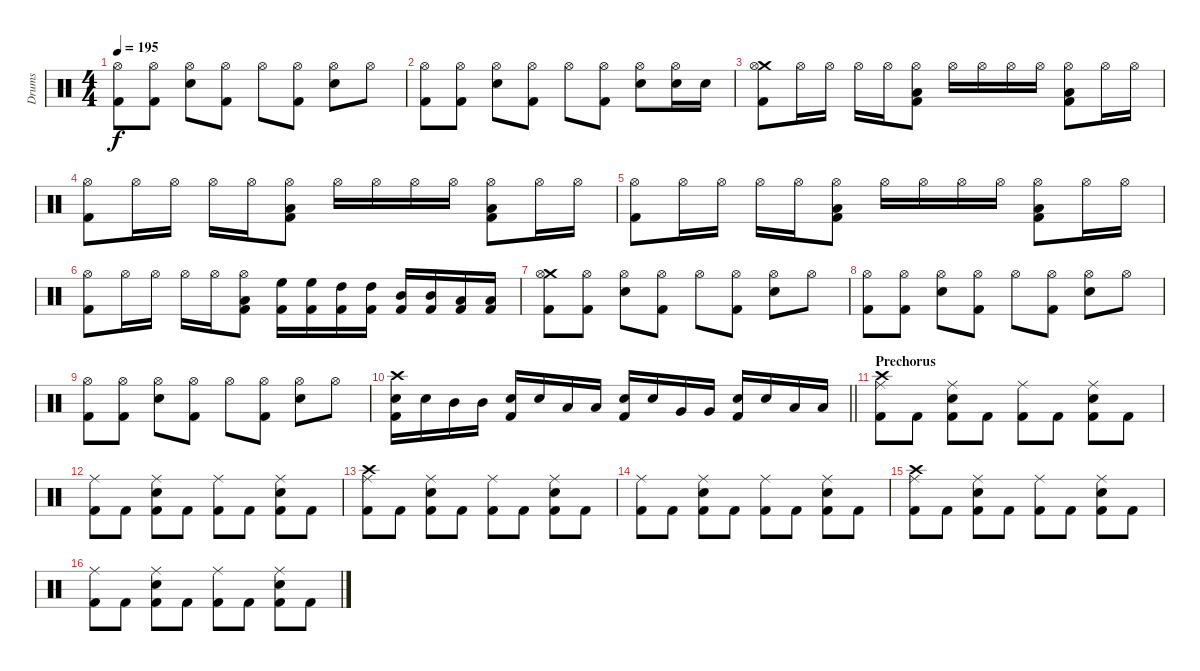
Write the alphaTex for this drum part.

\track ("Drums" "Drums") {instrument percussion}
\staff {score}
\articulation defaults
\ts (4 4)
\tempo 195
\clef neutral
\ks c
("Hi-Hat (open)" "Kick (hit) 2").8{dy f} ("Hi-Hat (open)" "Kick (hit) 2").8 ("Hi-Hat (open)" "Snare (hit) 2").8 ("Hi-Hat (open)" "Kick (hit) 2").8 "Hi-Hat (open)".8 ("Hi-Hat (open)" "Kick (hit) 2").8 ("Hi-Hat (open)" "Snare (hit) 2").8 "Hi-Hat (open)".8 |
("Hi-Hat (open)" "Kick (hit) 2").8 ("Hi-Hat (open)" "Kick (hit) 2").8 ("Hi-Hat (open)" "Snare (hit) 2").8 ("Hi-Hat (open)" "Kick (hit) 2").8 "Hi-Hat (open)".8 ("Hi-Hat (open)" "Kick (hit) 2").8 ("Hi-Hat (open)" "Snare (hit) 2").8 ("Hi-Hat (open)" "Snare (hit) 2").16 "Snare (hit) 2".16 |
("Crash medium (hit)" "Hi-Hat (open)" "Kick (hit) 2").8 "Hi-Hat (open)".16 "Hi-Hat (open)".16 "Hi-Hat (open)".16 "Hi-Hat (open)".16 ("Hi-Hat (open)" "Low Floor Tom (hit)" "Kick (hit) 2").8 "Hi-Hat (open)".16 "Hi-Hat (open)".16 "Hi-Hat (open)".16 "Hi-Hat (open)".16 ("Hi-Hat (open)" "Low Floor Tom (hit)" "Kick (hit) 2").8 "Hi-Hat (open)".16 "Hi-Hat (open)".16 |
("Hi-Hat (open)" "Kick (hit) 2").8 "Hi-Hat (open)".16 "Hi-Hat (open)".16 "Hi-Hat (open)".16 "Hi-Hat (open)".16 ("Hi-Hat (open)" "Low Floor Tom (hit)" "Kick (hit) 2").8 "Hi-Hat (open)".16 "Hi-Hat (open)".16 "Hi-Hat (open)".16 "Hi-Hat (open)".16 ("Hi-Hat (open)" "Low Floor Tom (hit)" "Kick (hit) 2").8 "Hi-Hat (open)".16 "Hi-Hat (open)".16 |
("Hi-Hat (open)" "Kick (hit) 2").8 "Hi-Hat (open)".16 "Hi-Hat (open)".16 "Hi-Hat (open)".16 "Hi-Hat (open)".16 ("Hi-Hat (open)" "Low Floor Tom (hit)" "Kick (hit) 2").8 "Hi-Hat (open)".16 "Hi-Hat (open)".16 "Hi-Hat (open)".16 "Hi-Hat (open)".16 ("Hi-Hat (open)" "Low Floor Tom (hit)" "Kick (hit) 2").8 "Hi-Hat (open)".16 "Hi-Hat (open)".16 |
("Hi-Hat (open)" "Kick (hit) 2").8 "Hi-Hat (open)".16 "Hi-Hat (open)".16 "Hi-Hat (open)".16 "Hi-Hat (open)".16 ("Hi-Hat (open)" "Low Floor Tom (hit)" "Kick (hit) 2").8 ("High Floor Tom (hit)" "Kick (hit) 2").16 ("High Floor Tom (hit)" "Kick (hit) 2").16 ("High Tom (hit)" "Kick (hit) 2").16 ("High Tom (hit)" "Kick (hit) 2").16 ("Mid Tom (hit)" "Kick (hit) 2").16 ("Mid Tom (hit)" "Kick (hit) 2").16 ("Low Tom (hit)" "Kick (hit) 2").16 ("Low Tom (hit)" "Kick (hit) 2").16 |
("Crash medium (hit)" "Hi-Hat (open)" "Kick (hit) 2").8 ("Hi-Hat (open)" "Kick (hit) 2").8 ("Hi-Hat (open)" "Snare (hit) 2").8 ("Hi-Hat (open)" "Kick (hit) 2").8 "Hi-Hat (open)".8 ("Hi-Hat (open)" "Kick (hit) 2").8 ("Hi-Hat (open)" "Snare (hit) 2").8 "Hi-Hat (open)".8 |
("Hi-Hat (open)" "Kick (hit) 2").8 ("Hi-Hat (open)" "Kick (hit) 2").8 ("Hi-Hat (open)" "Snare (hit) 2").8 ("Hi-Hat (open)" "Kick (hit) 2").8 "Hi-Hat (open)".8 ("Hi-Hat (open)" "Kick (hit) 2").8 ("Hi-Hat (open)" "Snare (hit) 2").8 "Hi-Hat (open)".8 |
("Hi-Hat (open)" "Kick (hit) 2").8 ("Hi-Hat (open)" "Kick (hit) 2").8 ("Hi-Hat (open)" "Snare (hit) 2").8 ("Hi-Hat (open)" "Kick (hit) 2").8 "Hi-Hat (open)".8 ("Hi-Hat (open)" "Kick (hit) 2").8 ("Hi-Hat (open)" "Snare (hit) 2").8 "Hi-Hat (open)".8 |
\barLineRight lightlight
("Crash high (hit)" "Snare (hit) 2" "Kick (hit) 2").16 "Snare (hit) 2".16 "Mid Tom (hit)".16 "Mid Tom (hit)".16 ("Snare (hit) 2" "Kick (hit) 2").16 "Snare (hit) 2".16 "Low Tom (hit)".16 "Low Tom (hit)".16 ("Snare (hit) 2" "Kick (hit) 2").16 "Snare (hit) 2".16 "Very Low Tom (hit)".16 "Very Low Tom (hit)".16 ("Snare (hit) 2" "Kick (hit) 2").16 "Snare (hit) 2".16 "Low Floor Tom (hit)".16 "Low Floor Tom (hit)".16 |
\section ("" "Prechorus")
("Crash high (hit)" "Ride (middle)" "Kick (hit) 2").8 "Kick (hit) 2".8 ("Ride (middle)" "Snare (hit) 2" "Kick (hit) 2").8 "Kick (hit) 2".8 ("Ride (middle)" "Kick (hit) 2").8 "Kick (hit) 2".8 ("Ride (middle)" "Snare (hit) 2" "Kick (hit) 2").8 "Kick (hit) 2".8 |
("Ride (middle)" "Kick (hit) 2").8 "Kick (hit) 2".8 ("Ride (middle)" "Snare (hit) 2" "Kick (hit) 2").8 "Kick (hit) 2".8 ("Ride (middle)" "Kick (hit) 2").8 "Kick (hit) 2".8 ("Ride (middle)" "Snare (hit) 2" "Kick (hit) 2").8 "Kick (hit) 2".8 |
("Crash high (hit)" "Ride (middle)" "Kick (hit) 2").8 "Kick (hit) 2".8 ("Ride (middle)" "Snare (hit) 2" "Kick (hit) 2").8 "Kick (hit) 2".8 ("Ride (middle)" "Kick (hit) 2").8 "Kick (hit) 2".8 ("Ride (middle)" "Snare (hit) 2" "Kick (hit) 2").8 "Kick (hit) 2".8 |
("Ride (middle)" "Kick (hit) 2").8 "Kick (hit) 2".8 ("Ride (middle)" "Snare (hit) 2" "Kick (hit) 2").8 "Kick (hit) 2".8 ("Ride (middle)" "Kick (hit) 2").8 "Kick (hit) 2".8 ("Ride (middle)" "Snare (hit) 2" "Kick (hit) 2").8 "Kick (hit) 2".8 |
("Crash high (hit)" "Ride (middle)" "Kick (hit) 2").8 "Kick (hit) 2".8 ("Ride (middle)" "Snare (hit) 2" "Kick (hit) 2").8 "Kick (hit) 2".8 ("Ride (middle)" "Kick (hit) 2").8 "Kick (hit) 2".8 ("Ride (middle)" "Snare (hit) 2" "Kick (hit) 2").8 "Kick (hit) 2".8 |
("Ride (middle)" "Kick (hit) 2").8 "Kick (hit) 2".8 ("Ride (middle)" "Snare (hit) 2" "Kick (hit) 2").8 "Kick (hit) 2".8 ("Ride (middle)" "Kick (hit) 2").8 "Kick (hit) 2".8 ("Ride (middle)" "Snare (hit) 2" "Kick (hit) 2").8 "Kick (hit) 2".8
